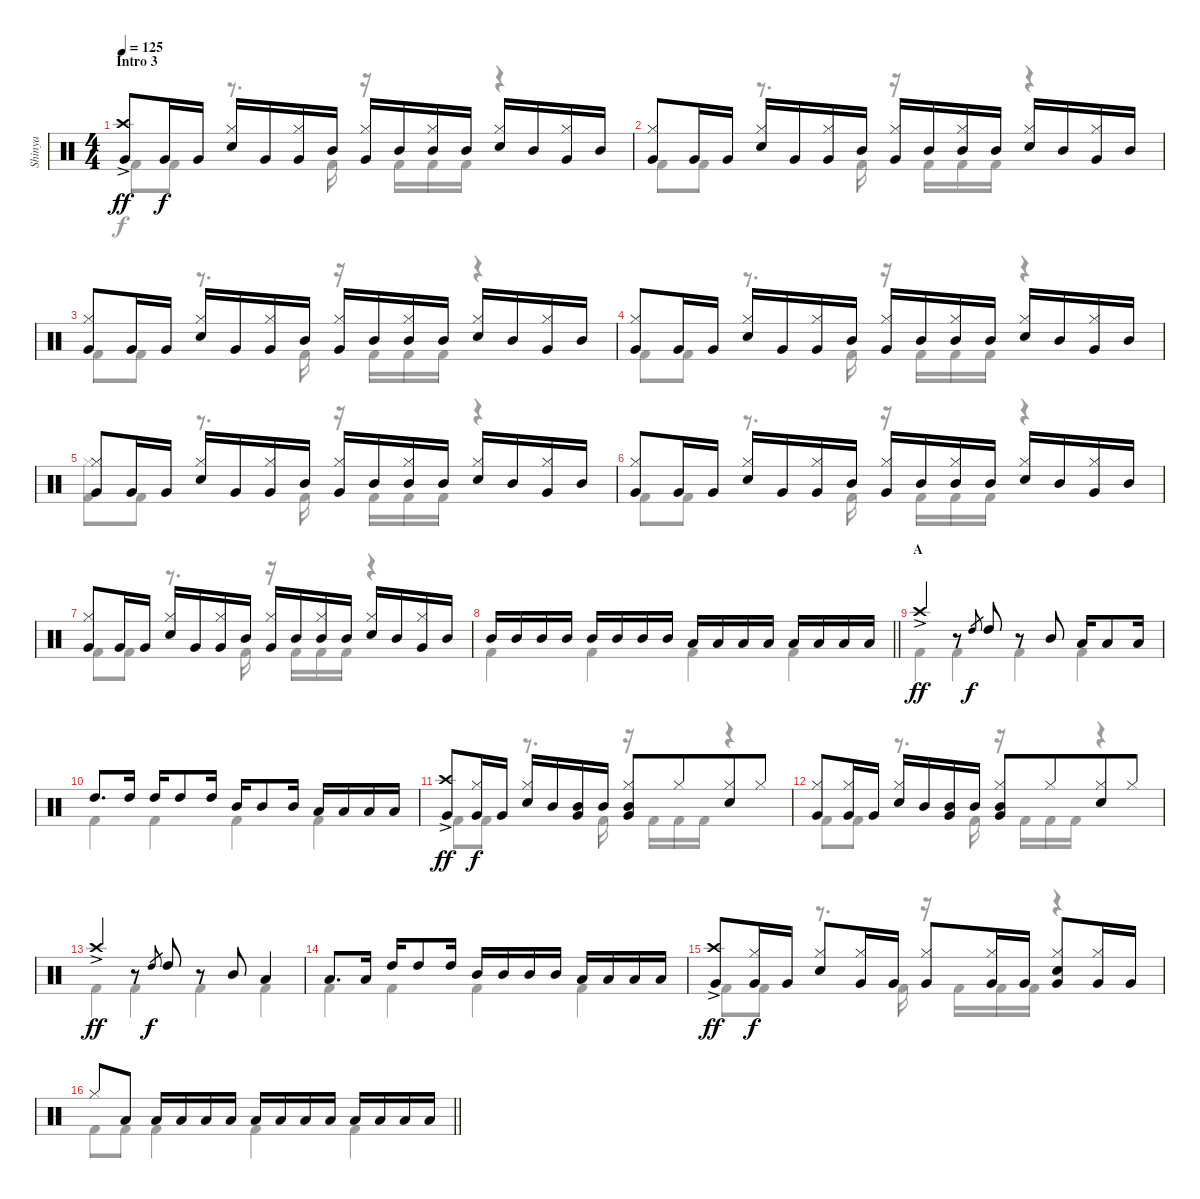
\track ("Shinya" "Shinya") {instrument percussion}
\staff {score}
\articulation defaults
\voice
\ts (4 4)
\section ("" "Intro 3")
\tempo 125
\clef neutral
\ks c
("Crash high (hit)"{ac} "Very Low Tom (hit)").8{dy ff} "Very Low Tom (hit)".16{dy f} "Very Low Tom (hit)".16 ("Hi-Hat (closed)" "Snare (hit) 2").16 "Very Low Tom (hit)".16 ("Hi-Hat (closed)" "Very Low Tom (hit)").16 "Mid Tom (hit)".16 ("Hi-Hat (closed)" "Very Low Tom (hit)").16 "Mid Tom (hit)".16 ("Hi-Hat (closed)" "Mid Tom (hit)").16 "Mid Tom (hit)".16 ("Hi-Hat (closed)" "Snare (hit) 2").16 "Mid Tom (hit)".16 ("Hi-Hat (closed)" "Very Low Tom (hit)").16 "Mid Tom (hit)".16 |
("Hi-Hat (closed)" "Very Low Tom (hit)").8 "Very Low Tom (hit)".16 "Very Low Tom (hit)".16 ("Hi-Hat (closed)" "Snare (hit) 2").16 "Very Low Tom (hit)".16 ("Hi-Hat (closed)" "Very Low Tom (hit)").16 "Mid Tom (hit)".16 ("Hi-Hat (closed)" "Very Low Tom (hit)").16 "Mid Tom (hit)".16 ("Hi-Hat (closed)" "Mid Tom (hit)").16 "Mid Tom (hit)".16 ("Hi-Hat (closed)" "Snare (hit) 2").16 "Mid Tom (hit)".16 ("Hi-Hat (closed)" "Very Low Tom (hit)").16 "Mid Tom (hit)".16 |
("Hi-Hat (closed)" "Very Low Tom (hit)").8 "Very Low Tom (hit)".16 "Very Low Tom (hit)".16 ("Hi-Hat (closed)" "Snare (hit) 2").16 "Very Low Tom (hit)".16 ("Hi-Hat (closed)" "Very Low Tom (hit)").16 "Mid Tom (hit)".16 ("Hi-Hat (closed)" "Very Low Tom (hit)").16 "Mid Tom (hit)".16 ("Hi-Hat (closed)" "Mid Tom (hit)").16 "Mid Tom (hit)".16 ("Hi-Hat (closed)" "Snare (hit) 2").16 "Mid Tom (hit)".16 ("Hi-Hat (closed)" "Very Low Tom (hit)").16 "Mid Tom (hit)".16 |
("Hi-Hat (closed)" "Very Low Tom (hit)").8 "Very Low Tom (hit)".16 "Very Low Tom (hit)".16 ("Hi-Hat (closed)" "Snare (hit) 2").16 "Very Low Tom (hit)".16 ("Hi-Hat (closed)" "Very Low Tom (hit)").16 "Mid Tom (hit)".16 ("Hi-Hat (closed)" "Very Low Tom (hit)").16 "Mid Tom (hit)".16 ("Hi-Hat (closed)" "Mid Tom (hit)").16 "Mid Tom (hit)".16 ("Hi-Hat (closed)" "Snare (hit) 2").16 "Mid Tom (hit)".16 ("Hi-Hat (closed)" "Very Low Tom (hit)").16 "Mid Tom (hit)".16 |
("Hi-Hat (closed)" "Very Low Tom (hit)").8 "Very Low Tom (hit)".16 "Very Low Tom (hit)".16 ("Hi-Hat (closed)" "Snare (hit) 2").16 "Very Low Tom (hit)".16 ("Hi-Hat (closed)" "Very Low Tom (hit)").16 "Mid Tom (hit)".16 ("Hi-Hat (closed)" "Very Low Tom (hit)").16 "Mid Tom (hit)".16 ("Hi-Hat (closed)" "Mid Tom (hit)").16 "Mid Tom (hit)".16 ("Hi-Hat (closed)" "Snare (hit) 2").16 "Mid Tom (hit)".16 ("Hi-Hat (closed)" "Very Low Tom (hit)").16 "Mid Tom (hit)".16 |
("Hi-Hat (closed)" "Very Low Tom (hit)").8 "Very Low Tom (hit)".16 "Very Low Tom (hit)".16 ("Hi-Hat (closed)" "Snare (hit) 2").16 "Very Low Tom (hit)".16 ("Hi-Hat (closed)" "Very Low Tom (hit)").16 "Mid Tom (hit)".16 ("Hi-Hat (closed)" "Very Low Tom (hit)").16 "Mid Tom (hit)".16 ("Hi-Hat (closed)" "Mid Tom (hit)").16 "Mid Tom (hit)".16 ("Hi-Hat (closed)" "Snare (hit) 2").16 "Mid Tom (hit)".16 ("Hi-Hat (closed)" "Very Low Tom (hit)").16 "Mid Tom (hit)".16 |
("Hi-Hat (closed)" "Very Low Tom (hit)").8 "Very Low Tom (hit)".16 "Very Low Tom (hit)".16 ("Hi-Hat (closed)" "Snare (hit) 2").16 "Very Low Tom (hit)".16 ("Hi-Hat (closed)" "Very Low Tom (hit)").16 "Mid Tom (hit)".16 ("Hi-Hat (closed)" "Very Low Tom (hit)").16 "Mid Tom (hit)".16 ("Hi-Hat (closed)" "Mid Tom (hit)").16 "Mid Tom (hit)".16 ("Hi-Hat (closed)" "Snare (hit) 2").16 "Mid Tom (hit)".16 ("Hi-Hat (closed)" "Very Low Tom (hit)").16 "Mid Tom (hit)".16 |
\barLineRight lightlight "Mid Tom (hit)".16 "Mid Tom (hit)".16 "Mid Tom (hit)".16 "Mid Tom (hit)".16 "Mid Tom (hit)".16 "Mid Tom (hit)".16 "Mid Tom (hit)".16 "Mid Tom (hit)".16 "Low Tom (hit)".16 "Low Tom (hit)".16 "Low Tom (hit)".16 "Low Tom (hit)".16 "Low Tom (hit)".16 "Low Tom (hit)".16 "Low Tom (hit)".16 "Low Tom (hit)".16
|
\section ("" "A")
"Crash high (hit)"{ac}.4{dy ff} r.8 "High Tom (hit)".8{gr dy f} "High Tom (hit)".8 r.8 "Mid Tom (hit)".8 "Low Tom (hit)".16 "Low Tom (hit)".8 "Low Tom (hit)".16 |
"High Tom (hit)".8{d} "High Tom (hit)".16 "High Tom (hit)".16 "High Tom (hit)".8 "High Tom (hit)".16 "Mid Tom (hit)".16 "Mid Tom (hit)".8 "Mid Tom (hit)".16 "Low Tom (hit)".16 "Low Tom (hit)".16 "Low Tom (hit)".16 "Low Tom (hit)".16 |
("Crash high (hit)"{ac} "Very Low Tom (hit)").8{dy ff} ("Hi-Hat (closed)" "Very Low Tom (hit)").16{dy f} "Very Low Tom (hit)".16 ("Hi-Hat (closed)" "Snare (hit) 2").16 "Mid Tom (hit)".16 ("Mid Tom (hit)" "Very Low Tom (hit)").16 "Mid Tom (hit)".16 ("Hi-Hat (closed)" "Mid Tom (hit)" "Very Low Tom (hit)").8 "Hi-Hat (closed)".8{beam merge} ("Hi-Hat (closed)" "Snare (hit) 2").8 "Hi-Hat (closed)".8 |
("Hi-Hat (closed)" "Very Low Tom (hit)").8 ("Hi-Hat (closed)" "Very Low Tom (hit)").16 "Very Low Tom (hit)".16 ("Hi-Hat (closed)" "Snare (hit) 2").16 "Mid Tom (hit)".16 ("Mid Tom (hit)" "Very Low Tom (hit)").16 "Mid Tom (hit)".16 ("Hi-Hat (closed)" "Mid Tom (hit)" "Very Low Tom (hit)").8 "Hi-Hat (closed)".8{beam merge} ("Hi-Hat (closed)" "Snare (hit) 2").8 "Hi-Hat (closed)".8 |
"Crash high (hit)"{ac}.4{dy ff} r.8 "High Tom (hit)".8{gr dy f} "High Tom (hit)".8 r.8 "Mid Tom (hit)".8 "Low Tom (hit)".4 |
"Low Tom (hit)".8{d} "Low Tom (hit)".16 "High Tom (hit)".16 "High Tom (hit)".8 "High Tom (hit)".16 "Mid Tom (hit)".16 "Mid Tom (hit)".16 "Mid Tom (hit)".16 "Mid Tom (hit)".16 "Low Tom (hit)".16 "Low Tom (hit)".16 "Low Tom (hit)".16 "Low Tom (hit)".16 |
("Crash high (hit)"{ac} "Very Low Tom (hit)").8{dy ff} ("Hi-Hat (closed)" "Very Low Tom (hit)").16{dy f} "Very Low Tom (hit)".16 ("Hi-Hat (closed)" "Snare (hit) 2").8 ("Hi-Hat (closed)" "Very Low Tom (hit)").16 "Very Low Tom (hit)".16 ("Hi-Hat (closed)" "Very Low Tom (hit)").8 ("Hi-Hat (closed)" "Very Low Tom (hit)").16 "Very Low Tom (hit)".16 ("Hi-Hat (closed)" "Snare (hit) 2" "Very Low Tom (hit)").8 ("Hi-Hat (closed)" "Very Low Tom (hit)").16 "Very Low Tom (hit)".16 |
\barLineRight lightlight "Hi-Hat (closed)".8 "Low Tom (hit)".8 "Low Tom (hit)".16 "Low Tom (hit)".16 "Low Tom (hit)".16 "Low Tom (hit)".16 "Low Tom (hit)".16 "Low Tom (hit)".16 "Low Tom (hit)".16 "Low Tom (hit)".16 "Low Tom (hit)".16 "Low Tom (hit)".16 "Low Tom (hit)".16 "Low Tom (hit)".16
\voice
\clef neutral
\ottava regular
\simile none
\ks c "Kick (hit) 2".8{dy f} "Kick (hit) 2".8
r.8{d} "Kick (hit) 2".16 r.16 "Kick (hit) 2".16 "Kick (hit) 2".16 "Kick (hit) 2".16 r.4 |
"Kick (hit) 2".8 "Kick (hit) 2".8 r.8{d} "Kick (hit) 2".16 r.16 "Kick (hit) 2".16 "Kick (hit) 2".16 "Kick (hit) 2".16 r.4 |
"Kick (hit) 2".8 "Kick (hit) 2".8 r.8{d} "Kick (hit) 2".16 r.16 "Kick (hit) 2".16 "Kick (hit) 2".16 "Kick (hit) 2".16 r.4 |
"Kick (hit) 2".8 "Kick (hit) 2".8 r.8{d} "Kick (hit) 2".16 r.16 "Kick (hit) 2".16 "Kick (hit) 2".16 "Kick (hit) 2".16 r.4 |
("Hi-Hat (closed)" "Kick (hit) 2").8 "Kick (hit) 2".8 r.8{d} "Kick (hit) 2".16 r.16 "Kick (hit) 2".16 "Kick (hit) 2".16 "Kick (hit) 2".16 r.4 |
"Kick (hit) 2".8 "Kick (hit) 2".8 r.8{d} "Kick (hit) 2".16 r.16 "Kick (hit) 2".16 "Kick (hit) 2".16 "Kick (hit) 2".16 r.4 |
"Kick (hit) 2".8 "Kick (hit) 2".8 r.8{d} "Kick (hit) 2".16 r.16 "Kick (hit) 2".16 "Kick (hit) 2".16 "Kick (hit) 2".16 r.4 |
\barLineRight lightlight "Kick (hit) 2".4 "Kick (hit) 2".4 "Kick (hit) 2".4 "Kick (hit) 2".4
|
"Kick (hit) 2".4 "Kick (hit) 2".4 "Kick (hit) 2".4 "Kick (hit) 2".4 |
"Kick (hit) 2".4 "Kick (hit) 2".4 "Kick (hit) 2".4 "Kick (hit) 2".4 |
"Kick (hit) 2".8 "Kick (hit) 2".8 r.8{d} "Kick (hit) 2".16 r.16 "Kick (hit) 2".16 "Kick (hit) 2".16 "Kick (hit) 2".16 r.4 |
"Kick (hit) 2".8 "Kick (hit) 2".8 r.8{d} "Kick (hit) 2".16 r.16 "Kick (hit) 2".16 "Kick (hit) 2".16 "Kick (hit) 2".16 r.4 |
"Kick (hit) 2".4 "Kick (hit) 2".4 "Kick (hit) 2".4 "Kick (hit) 2".4 |
"Kick (hit) 2".4 "Kick (hit) 2".4 "Kick (hit) 2".4 "Kick (hit) 2".4 |
"Kick (hit) 2".8 "Kick (hit) 2".8 r.8{d} "Kick (hit) 2".16 r.16 "Kick (hit) 2".16 "Kick (hit) 2".16 "Kick (hit) 2".16 r.4 |
\barLineRight lightlight "Kick (hit) 2".8 "Kick (hit) 2".8 "Kick (hit) 2".4 "Kick (hit) 2".4 "Kick (hit) 2".4
